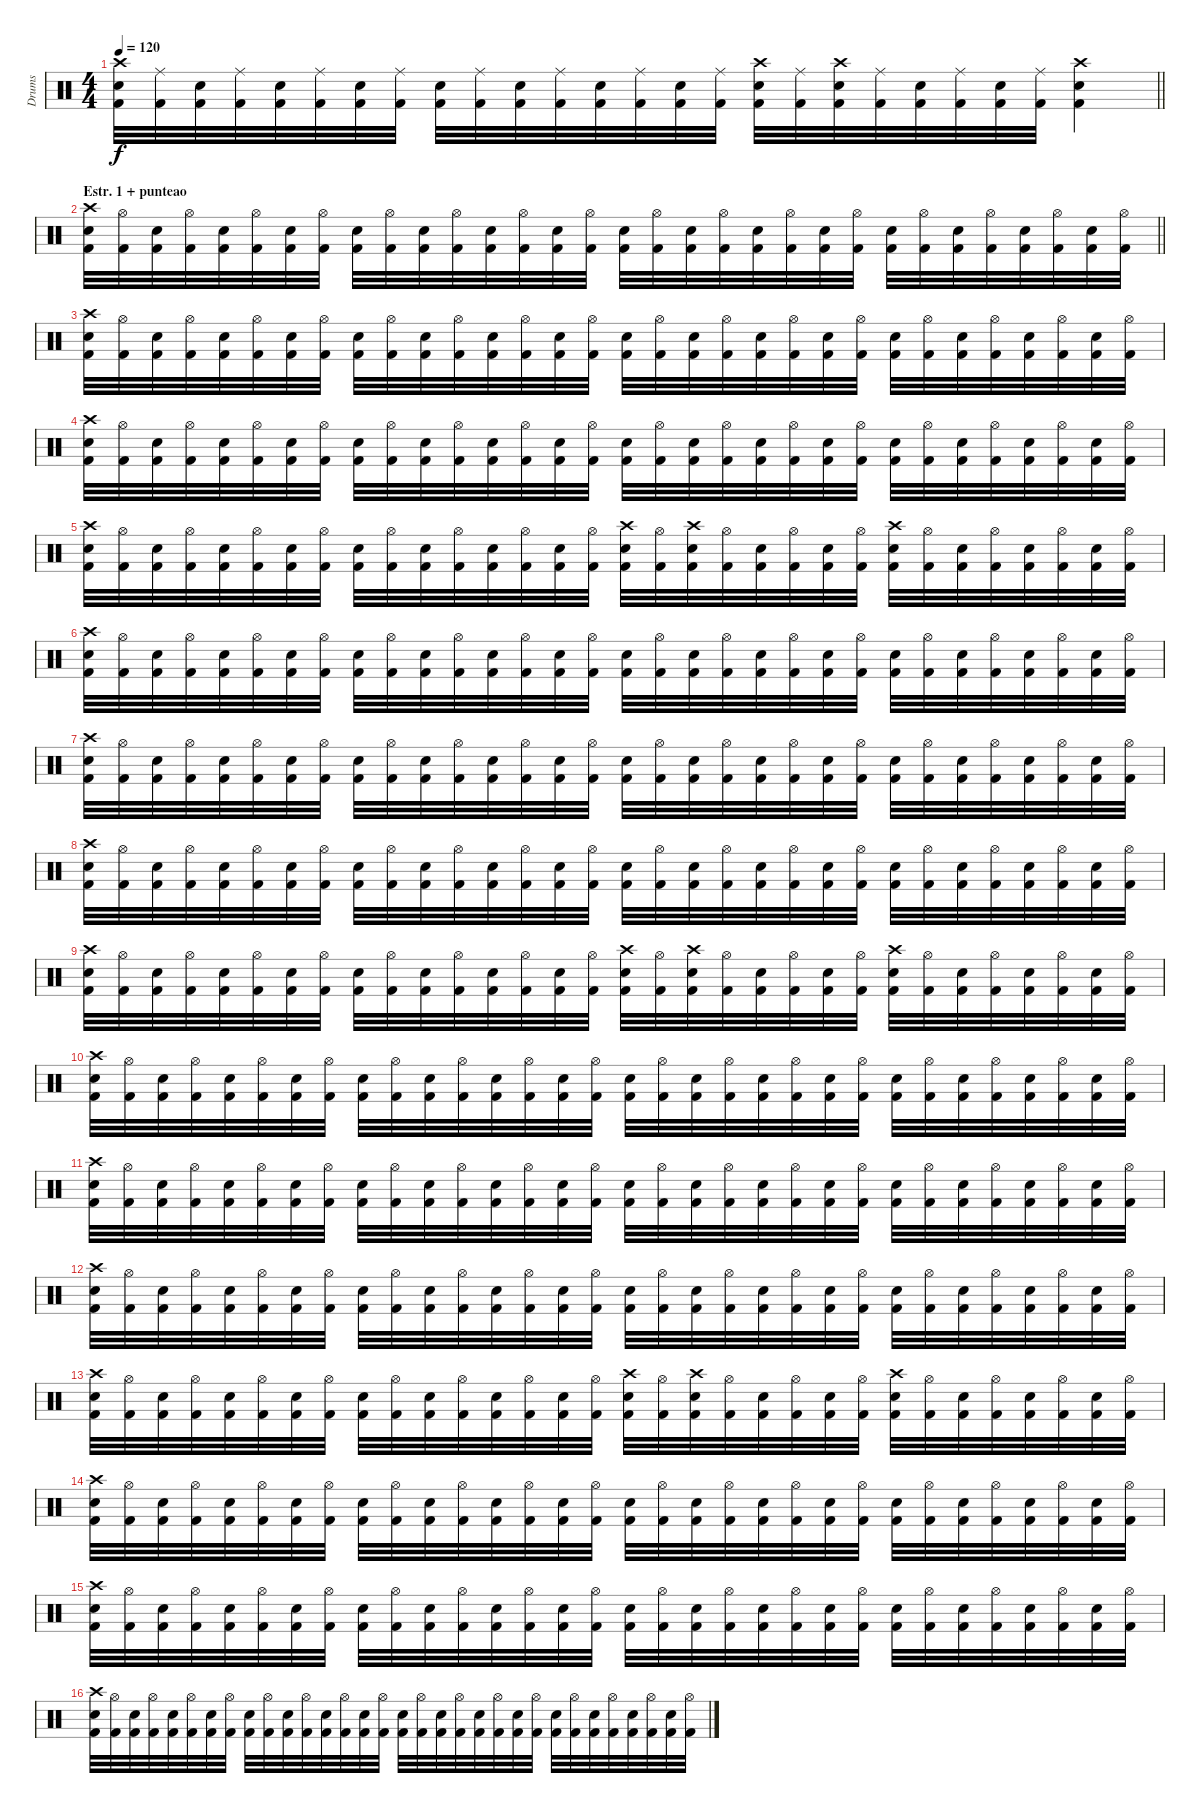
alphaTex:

\track ("Drums" "Drums") {instrument percussion}
\staff {score}
\articulation defaults
\ts (4 4)
\tempo 120
\clef neutral
\barLineRight lightlight
\ks c
("Kick (hit) 2" "Electric Snare (hit)" "Crash high (hit)").32{dy f} ("Kick (hit) 2" "Ride (middle)").32 ("Kick (hit) 2" "Electric Snare (hit)").32 ("Kick (hit) 2" "Ride (middle)").32 ("Kick (hit) 2" "Electric Snare (hit)").32 ("Kick (hit) 2" "Ride (middle)").32 ("Kick (hit) 2" "Electric Snare (hit)").32 ("Kick (hit) 2" "Ride (middle)").32 ("Kick (hit) 2" "Electric Snare (hit)").32 ("Kick (hit) 2" "Ride (middle)").32 ("Kick (hit) 2" "Electric Snare (hit)").32 ("Kick (hit) 2" "Ride (middle)").32 ("Kick (hit) 2" "Electric Snare (hit)").32 ("Kick (hit) 2" "Ride (middle)").32 ("Kick (hit) 2" "Electric Snare (hit)").32 ("Kick (hit) 2" "Ride (middle)").32 ("Kick (hit) 2" "Electric Snare (hit)" "Crash high (hit)").32 ("Kick (hit) 2" "Ride (middle)").32 ("Kick (hit) 2" "Electric Snare (hit)" "Crash high (hit)").32 ("Kick (hit) 2" "Ride (middle)").32 ("Kick (hit) 2" "Electric Snare (hit)").32 ("Kick (hit) 2" "Ride (middle)").32 ("Kick (hit) 2" "Electric Snare (hit)").32 ("Kick (hit) 2" "Ride (middle)").32 ("Kick (hit) 2" "Electric Snare (hit)" "Crash high (hit)").4 |
\section ("" "Estr. 1 + punteao")
\barLineRight lightlight
("Kick (hit) 2" "Electric Snare (hit)" "Crash high (hit)").32 ("Kick (hit) 2" "Hi-Hat (open)").32 ("Kick (hit) 2" "Electric Snare (hit)").32 ("Kick (hit) 2" "Hi-Hat (open)").32 ("Kick (hit) 2" "Electric Snare (hit)").32 ("Kick (hit) 2" "Hi-Hat (open)").32 ("Kick (hit) 2" "Electric Snare (hit)").32 ("Kick (hit) 2" "Hi-Hat (open)").32 ("Kick (hit) 2" "Electric Snare (hit)").32 ("Kick (hit) 2" "Hi-Hat (open)").32 ("Kick (hit) 2" "Electric Snare (hit)").32 ("Kick (hit) 2" "Hi-Hat (open)").32 ("Kick (hit) 2" "Electric Snare (hit)").32 ("Kick (hit) 2" "Hi-Hat (open)").32 ("Kick (hit) 2" "Electric Snare (hit)").32 ("Kick (hit) 2" "Hi-Hat (open)").32 ("Kick (hit) 2" "Electric Snare (hit)").32 ("Kick (hit) 2" "Hi-Hat (open)").32 ("Kick (hit) 2" "Electric Snare (hit)").32 ("Kick (hit) 2" "Hi-Hat (open)").32 ("Kick (hit) 2" "Electric Snare (hit)").32 ("Kick (hit) 2" "Hi-Hat (open)").32 ("Kick (hit) 2" "Electric Snare (hit)").32 ("Kick (hit) 2" "Hi-Hat (open)").32 ("Kick (hit) 2" "Electric Snare (hit)").32 ("Kick (hit) 2" "Hi-Hat (open)").32 ("Kick (hit) 2" "Electric Snare (hit)").32 ("Kick (hit) 2" "Hi-Hat (open)").32 ("Kick (hit) 2" "Electric Snare (hit)").32 ("Kick (hit) 2" "Hi-Hat (open)").32 ("Kick (hit) 2" "Electric Snare (hit)").32 ("Kick (hit) 2" "Hi-Hat (open)").32 |
("Kick (hit) 2" "Electric Snare (hit)" "Crash high (hit)").32 ("Kick (hit) 2" "Hi-Hat (open)").32 ("Kick (hit) 2" "Electric Snare (hit)").32 ("Kick (hit) 2" "Hi-Hat (open)").32 ("Kick (hit) 2" "Electric Snare (hit)").32 ("Kick (hit) 2" "Hi-Hat (open)").32 ("Kick (hit) 2" "Electric Snare (hit)").32 ("Kick (hit) 2" "Hi-Hat (open)").32 ("Kick (hit) 2" "Electric Snare (hit)").32 ("Kick (hit) 2" "Hi-Hat (open)").32 ("Kick (hit) 2" "Electric Snare (hit)").32 ("Kick (hit) 2" "Hi-Hat (open)").32 ("Kick (hit) 2" "Electric Snare (hit)").32 ("Kick (hit) 2" "Hi-Hat (open)").32 ("Kick (hit) 2" "Electric Snare (hit)").32 ("Kick (hit) 2" "Hi-Hat (open)").32 ("Kick (hit) 2" "Electric Snare (hit)").32 ("Kick (hit) 2" "Hi-Hat (open)").32 ("Kick (hit) 2" "Electric Snare (hit)").32 ("Kick (hit) 2" "Hi-Hat (open)").32 ("Kick (hit) 2" "Electric Snare (hit)").32 ("Kick (hit) 2" "Hi-Hat (open)").32 ("Kick (hit) 2" "Electric Snare (hit)").32 ("Kick (hit) 2" "Hi-Hat (open)").32 ("Kick (hit) 2" "Electric Snare (hit)").32 ("Kick (hit) 2" "Hi-Hat (open)").32 ("Kick (hit) 2" "Electric Snare (hit)").32 ("Kick (hit) 2" "Hi-Hat (open)").32 ("Kick (hit) 2" "Electric Snare (hit)").32 ("Kick (hit) 2" "Hi-Hat (open)").32 ("Kick (hit) 2" "Electric Snare (hit)").32 ("Kick (hit) 2" "Hi-Hat (open)").32 |
("Kick (hit) 2" "Electric Snare (hit)" "Crash high (hit)").32 ("Kick (hit) 2" "Hi-Hat (open)").32 ("Kick (hit) 2" "Electric Snare (hit)").32 ("Kick (hit) 2" "Hi-Hat (open)").32 ("Kick (hit) 2" "Electric Snare (hit)").32 ("Kick (hit) 2" "Hi-Hat (open)").32 ("Kick (hit) 2" "Electric Snare (hit)").32 ("Kick (hit) 2" "Hi-Hat (open)").32 ("Kick (hit) 2" "Electric Snare (hit)").32 ("Kick (hit) 2" "Hi-Hat (open)").32 ("Kick (hit) 2" "Electric Snare (hit)").32 ("Kick (hit) 2" "Hi-Hat (open)").32 ("Kick (hit) 2" "Electric Snare (hit)").32 ("Kick (hit) 2" "Hi-Hat (open)").32 ("Kick (hit) 2" "Electric Snare (hit)").32 ("Kick (hit) 2" "Hi-Hat (open)").32 ("Kick (hit) 2" "Electric Snare (hit)").32 ("Kick (hit) 2" "Hi-Hat (open)").32 ("Kick (hit) 2" "Electric Snare (hit)").32 ("Kick (hit) 2" "Hi-Hat (open)").32 ("Kick (hit) 2" "Electric Snare (hit)").32 ("Kick (hit) 2" "Hi-Hat (open)").32 ("Kick (hit) 2" "Electric Snare (hit)").32 ("Kick (hit) 2" "Hi-Hat (open)").32 ("Kick (hit) 2" "Electric Snare (hit)").32 ("Kick (hit) 2" "Hi-Hat (open)").32 ("Kick (hit) 2" "Electric Snare (hit)").32 ("Kick (hit) 2" "Hi-Hat (open)").32 ("Kick (hit) 2" "Electric Snare (hit)").32 ("Kick (hit) 2" "Hi-Hat (open)").32 ("Kick (hit) 2" "Electric Snare (hit)").32 ("Kick (hit) 2" "Hi-Hat (open)").32 |
("Kick (hit) 2" "Electric Snare (hit)" "Crash high (hit)").32 ("Kick (hit) 2" "Hi-Hat (open)").32 ("Kick (hit) 2" "Electric Snare (hit)").32 ("Kick (hit) 2" "Hi-Hat (open)").32 ("Kick (hit) 2" "Electric Snare (hit)").32 ("Kick (hit) 2" "Hi-Hat (open)").32 ("Kick (hit) 2" "Electric Snare (hit)").32 ("Kick (hit) 2" "Hi-Hat (open)").32 ("Kick (hit) 2" "Electric Snare (hit)").32 ("Kick (hit) 2" "Hi-Hat (open)").32 ("Kick (hit) 2" "Electric Snare (hit)").32 ("Kick (hit) 2" "Hi-Hat (open)").32 ("Kick (hit) 2" "Electric Snare (hit)").32 ("Kick (hit) 2" "Hi-Hat (open)").32 ("Kick (hit) 2" "Electric Snare (hit)").32 ("Kick (hit) 2" "Hi-Hat (open)").32 ("Kick (hit) 2" "Electric Snare (hit)" "Crash high (hit)").32 ("Kick (hit) 2" "Hi-Hat (open)").32 ("Kick (hit) 2" "Electric Snare (hit)" "Crash high (hit)").32 ("Kick (hit) 2" "Hi-Hat (open)").32 ("Kick (hit) 2" "Electric Snare (hit)").32 ("Kick (hit) 2" "Hi-Hat (open)").32 ("Kick (hit) 2" "Electric Snare (hit)").32 ("Kick (hit) 2" "Hi-Hat (open)").32 ("Kick (hit) 2" "Electric Snare (hit)" "Crash high (hit)").32 ("Kick (hit) 2" "Hi-Hat (open)").32 ("Kick (hit) 2" "Electric Snare (hit)").32 ("Kick (hit) 2" "Hi-Hat (open)").32 ("Kick (hit) 2" "Electric Snare (hit)").32 ("Kick (hit) 2" "Hi-Hat (open)").32 ("Kick (hit) 2" "Electric Snare (hit)").32 ("Kick (hit) 2" "Hi-Hat (open)").32 |
("Kick (hit) 2" "Electric Snare (hit)" "Crash high (hit)").32 ("Kick (hit) 2" "Hi-Hat (open)").32 ("Kick (hit) 2" "Electric Snare (hit)").32 ("Kick (hit) 2" "Hi-Hat (open)").32 ("Kick (hit) 2" "Electric Snare (hit)").32 ("Kick (hit) 2" "Hi-Hat (open)").32 ("Kick (hit) 2" "Electric Snare (hit)").32 ("Kick (hit) 2" "Hi-Hat (open)").32 ("Kick (hit) 2" "Electric Snare (hit)").32 ("Kick (hit) 2" "Hi-Hat (open)").32 ("Kick (hit) 2" "Electric Snare (hit)").32 ("Kick (hit) 2" "Hi-Hat (open)").32 ("Kick (hit) 2" "Electric Snare (hit)").32 ("Kick (hit) 2" "Hi-Hat (open)").32 ("Kick (hit) 2" "Electric Snare (hit)").32 ("Kick (hit) 2" "Hi-Hat (open)").32 ("Kick (hit) 2" "Electric Snare (hit)").32 ("Kick (hit) 2" "Hi-Hat (open)").32 ("Kick (hit) 2" "Electric Snare (hit)").32 ("Kick (hit) 2" "Hi-Hat (open)").32 ("Kick (hit) 2" "Electric Snare (hit)").32 ("Kick (hit) 2" "Hi-Hat (open)").32 ("Kick (hit) 2" "Electric Snare (hit)").32 ("Kick (hit) 2" "Hi-Hat (open)").32 ("Kick (hit) 2" "Electric Snare (hit)").32 ("Kick (hit) 2" "Hi-Hat (open)").32 ("Kick (hit) 2" "Electric Snare (hit)").32 ("Kick (hit) 2" "Hi-Hat (open)").32 ("Kick (hit) 2" "Electric Snare (hit)").32 ("Kick (hit) 2" "Hi-Hat (open)").32 ("Kick (hit) 2" "Electric Snare (hit)").32 ("Kick (hit) 2" "Hi-Hat (open)").32 |
("Kick (hit) 2" "Electric Snare (hit)" "Crash high (hit)").32 ("Kick (hit) 2" "Hi-Hat (open)").32 ("Kick (hit) 2" "Electric Snare (hit)").32 ("Kick (hit) 2" "Hi-Hat (open)").32 ("Kick (hit) 2" "Electric Snare (hit)").32 ("Kick (hit) 2" "Hi-Hat (open)").32 ("Kick (hit) 2" "Electric Snare (hit)").32 ("Kick (hit) 2" "Hi-Hat (open)").32 ("Kick (hit) 2" "Electric Snare (hit)").32 ("Kick (hit) 2" "Hi-Hat (open)").32 ("Kick (hit) 2" "Electric Snare (hit)").32 ("Kick (hit) 2" "Hi-Hat (open)").32 ("Kick (hit) 2" "Electric Snare (hit)").32 ("Kick (hit) 2" "Hi-Hat (open)").32 ("Kick (hit) 2" "Electric Snare (hit)").32 ("Kick (hit) 2" "Hi-Hat (open)").32 ("Kick (hit) 2" "Electric Snare (hit)").32 ("Kick (hit) 2" "Hi-Hat (open)").32 ("Kick (hit) 2" "Electric Snare (hit)").32 ("Kick (hit) 2" "Hi-Hat (open)").32 ("Kick (hit) 2" "Electric Snare (hit)").32 ("Kick (hit) 2" "Hi-Hat (open)").32 ("Kick (hit) 2" "Electric Snare (hit)").32 ("Kick (hit) 2" "Hi-Hat (open)").32 ("Kick (hit) 2" "Electric Snare (hit)").32 ("Kick (hit) 2" "Hi-Hat (open)").32 ("Kick (hit) 2" "Electric Snare (hit)").32 ("Kick (hit) 2" "Hi-Hat (open)").32 ("Kick (hit) 2" "Electric Snare (hit)").32 ("Kick (hit) 2" "Hi-Hat (open)").32 ("Kick (hit) 2" "Electric Snare (hit)").32 ("Kick (hit) 2" "Hi-Hat (open)").32 |
("Kick (hit) 2" "Electric Snare (hit)" "Crash high (hit)").32 ("Kick (hit) 2" "Hi-Hat (open)").32 ("Kick (hit) 2" "Electric Snare (hit)").32 ("Kick (hit) 2" "Hi-Hat (open)").32 ("Kick (hit) 2" "Electric Snare (hit)").32 ("Kick (hit) 2" "Hi-Hat (open)").32 ("Kick (hit) 2" "Electric Snare (hit)").32 ("Kick (hit) 2" "Hi-Hat (open)").32 ("Kick (hit) 2" "Electric Snare (hit)").32 ("Kick (hit) 2" "Hi-Hat (open)").32 ("Kick (hit) 2" "Electric Snare (hit)").32 ("Kick (hit) 2" "Hi-Hat (open)").32 ("Kick (hit) 2" "Electric Snare (hit)").32 ("Kick (hit) 2" "Hi-Hat (open)").32 ("Kick (hit) 2" "Electric Snare (hit)").32 ("Kick (hit) 2" "Hi-Hat (open)").32 ("Kick (hit) 2" "Electric Snare (hit)").32 ("Kick (hit) 2" "Hi-Hat (open)").32 ("Kick (hit) 2" "Electric Snare (hit)").32 ("Kick (hit) 2" "Hi-Hat (open)").32 ("Kick (hit) 2" "Electric Snare (hit)").32 ("Kick (hit) 2" "Hi-Hat (open)").32 ("Kick (hit) 2" "Electric Snare (hit)").32 ("Kick (hit) 2" "Hi-Hat (open)").32 ("Kick (hit) 2" "Electric Snare (hit)").32 ("Kick (hit) 2" "Hi-Hat (open)").32 ("Kick (hit) 2" "Electric Snare (hit)").32 ("Kick (hit) 2" "Hi-Hat (open)").32 ("Kick (hit) 2" "Electric Snare (hit)").32 ("Kick (hit) 2" "Hi-Hat (open)").32 ("Kick (hit) 2" "Electric Snare (hit)").32 ("Kick (hit) 2" "Hi-Hat (open)").32 |
("Kick (hit) 2" "Electric Snare (hit)" "Crash high (hit)").32 ("Kick (hit) 2" "Hi-Hat (open)").32 ("Kick (hit) 2" "Electric Snare (hit)").32 ("Kick (hit) 2" "Hi-Hat (open)").32 ("Kick (hit) 2" "Electric Snare (hit)").32 ("Kick (hit) 2" "Hi-Hat (open)").32 ("Kick (hit) 2" "Electric Snare (hit)").32 ("Kick (hit) 2" "Hi-Hat (open)").32 ("Kick (hit) 2" "Electric Snare (hit)").32 ("Kick (hit) 2" "Hi-Hat (open)").32 ("Kick (hit) 2" "Electric Snare (hit)").32 ("Kick (hit) 2" "Hi-Hat (open)").32 ("Kick (hit) 2" "Electric Snare (hit)").32 ("Kick (hit) 2" "Hi-Hat (open)").32 ("Kick (hit) 2" "Electric Snare (hit)").32 ("Kick (hit) 2" "Hi-Hat (open)").32 ("Kick (hit) 2" "Electric Snare (hit)" "Crash high (hit)").32 ("Kick (hit) 2" "Hi-Hat (open)").32 ("Kick (hit) 2" "Electric Snare (hit)" "Crash high (hit)").32 ("Kick (hit) 2" "Hi-Hat (open)").32 ("Kick (hit) 2" "Electric Snare (hit)").32 ("Kick (hit) 2" "Hi-Hat (open)").32 ("Kick (hit) 2" "Electric Snare (hit)").32 ("Kick (hit) 2" "Hi-Hat (open)").32 ("Kick (hit) 2" "Electric Snare (hit)" "Crash high (hit)").32 ("Kick (hit) 2" "Hi-Hat (open)").32 ("Kick (hit) 2" "Electric Snare (hit)").32 ("Kick (hit) 2" "Hi-Hat (open)").32 ("Kick (hit) 2" "Electric Snare (hit)").32 ("Kick (hit) 2" "Hi-Hat (open)").32 ("Kick (hit) 2" "Electric Snare (hit)").32 ("Kick (hit) 2" "Hi-Hat (open)").32 |
("Kick (hit) 2" "Electric Snare (hit)" "Crash high (hit)").32 ("Kick (hit) 2" "Hi-Hat (open)").32 ("Kick (hit) 2" "Electric Snare (hit)").32 ("Kick (hit) 2" "Hi-Hat (open)").32 ("Kick (hit) 2" "Electric Snare (hit)").32 ("Kick (hit) 2" "Hi-Hat (open)").32 ("Kick (hit) 2" "Electric Snare (hit)").32 ("Kick (hit) 2" "Hi-Hat (open)").32 ("Kick (hit) 2" "Electric Snare (hit)").32 ("Kick (hit) 2" "Hi-Hat (open)").32 ("Kick (hit) 2" "Electric Snare (hit)").32 ("Kick (hit) 2" "Hi-Hat (open)").32 ("Kick (hit) 2" "Electric Snare (hit)").32 ("Kick (hit) 2" "Hi-Hat (open)").32 ("Kick (hit) 2" "Electric Snare (hit)").32 ("Kick (hit) 2" "Hi-Hat (open)").32 ("Kick (hit) 2" "Electric Snare (hit)").32 ("Kick (hit) 2" "Hi-Hat (open)").32 ("Kick (hit) 2" "Electric Snare (hit)").32 ("Kick (hit) 2" "Hi-Hat (open)").32 ("Kick (hit) 2" "Electric Snare (hit)").32 ("Kick (hit) 2" "Hi-Hat (open)").32 ("Kick (hit) 2" "Electric Snare (hit)").32 ("Kick (hit) 2" "Hi-Hat (open)").32 ("Kick (hit) 2" "Electric Snare (hit)").32 ("Kick (hit) 2" "Hi-Hat (open)").32 ("Kick (hit) 2" "Electric Snare (hit)").32 ("Kick (hit) 2" "Hi-Hat (open)").32 ("Kick (hit) 2" "Electric Snare (hit)").32 ("Kick (hit) 2" "Hi-Hat (open)").32 ("Kick (hit) 2" "Electric Snare (hit)").32 ("Kick (hit) 2" "Hi-Hat (open)").32 |
("Kick (hit) 2" "Electric Snare (hit)" "Crash high (hit)").32 ("Kick (hit) 2" "Hi-Hat (open)").32 ("Kick (hit) 2" "Electric Snare (hit)").32 ("Kick (hit) 2" "Hi-Hat (open)").32 ("Kick (hit) 2" "Electric Snare (hit)").32 ("Kick (hit) 2" "Hi-Hat (open)").32 ("Kick (hit) 2" "Electric Snare (hit)").32 ("Kick (hit) 2" "Hi-Hat (open)").32 ("Kick (hit) 2" "Electric Snare (hit)").32 ("Kick (hit) 2" "Hi-Hat (open)").32 ("Kick (hit) 2" "Electric Snare (hit)").32 ("Kick (hit) 2" "Hi-Hat (open)").32 ("Kick (hit) 2" "Electric Snare (hit)").32 ("Kick (hit) 2" "Hi-Hat (open)").32 ("Kick (hit) 2" "Electric Snare (hit)").32 ("Kick (hit) 2" "Hi-Hat (open)").32 ("Kick (hit) 2" "Electric Snare (hit)").32 ("Kick (hit) 2" "Hi-Hat (open)").32 ("Kick (hit) 2" "Electric Snare (hit)").32 ("Kick (hit) 2" "Hi-Hat (open)").32 ("Kick (hit) 2" "Electric Snare (hit)").32 ("Kick (hit) 2" "Hi-Hat (open)").32 ("Kick (hit) 2" "Electric Snare (hit)").32 ("Kick (hit) 2" "Hi-Hat (open)").32 ("Kick (hit) 2" "Electric Snare (hit)").32 ("Kick (hit) 2" "Hi-Hat (open)").32 ("Kick (hit) 2" "Electric Snare (hit)").32 ("Kick (hit) 2" "Hi-Hat (open)").32 ("Kick (hit) 2" "Electric Snare (hit)").32 ("Kick (hit) 2" "Hi-Hat (open)").32 ("Kick (hit) 2" "Electric Snare (hit)").32 ("Kick (hit) 2" "Hi-Hat (open)").32 |
("Kick (hit) 2" "Electric Snare (hit)" "Crash high (hit)").32 ("Kick (hit) 2" "Hi-Hat (open)").32 ("Kick (hit) 2" "Electric Snare (hit)").32 ("Kick (hit) 2" "Hi-Hat (open)").32 ("Kick (hit) 2" "Electric Snare (hit)").32 ("Kick (hit) 2" "Hi-Hat (open)").32 ("Kick (hit) 2" "Electric Snare (hit)").32 ("Kick (hit) 2" "Hi-Hat (open)").32 ("Kick (hit) 2" "Electric Snare (hit)").32 ("Kick (hit) 2" "Hi-Hat (open)").32 ("Kick (hit) 2" "Electric Snare (hit)").32 ("Kick (hit) 2" "Hi-Hat (open)").32 ("Kick (hit) 2" "Electric Snare (hit)").32 ("Kick (hit) 2" "Hi-Hat (open)").32 ("Kick (hit) 2" "Electric Snare (hit)").32 ("Kick (hit) 2" "Hi-Hat (open)").32 ("Kick (hit) 2" "Electric Snare (hit)").32 ("Kick (hit) 2" "Hi-Hat (open)").32 ("Kick (hit) 2" "Electric Snare (hit)").32 ("Kick (hit) 2" "Hi-Hat (open)").32 ("Kick (hit) 2" "Electric Snare (hit)").32 ("Kick (hit) 2" "Hi-Hat (open)").32 ("Kick (hit) 2" "Electric Snare (hit)").32 ("Kick (hit) 2" "Hi-Hat (open)").32 ("Kick (hit) 2" "Electric Snare (hit)").32 ("Kick (hit) 2" "Hi-Hat (open)").32 ("Kick (hit) 2" "Electric Snare (hit)").32 ("Kick (hit) 2" "Hi-Hat (open)").32 ("Kick (hit) 2" "Electric Snare (hit)").32 ("Kick (hit) 2" "Hi-Hat (open)").32 ("Kick (hit) 2" "Electric Snare (hit)").32 ("Kick (hit) 2" "Hi-Hat (open)").32 |
("Kick (hit) 2" "Electric Snare (hit)" "Crash high (hit)").32 ("Kick (hit) 2" "Hi-Hat (open)").32 ("Kick (hit) 2" "Electric Snare (hit)").32 ("Kick (hit) 2" "Hi-Hat (open)").32 ("Kick (hit) 2" "Electric Snare (hit)").32 ("Kick (hit) 2" "Hi-Hat (open)").32 ("Kick (hit) 2" "Electric Snare (hit)").32 ("Kick (hit) 2" "Hi-Hat (open)").32 ("Kick (hit) 2" "Electric Snare (hit)").32 ("Kick (hit) 2" "Hi-Hat (open)").32 ("Kick (hit) 2" "Electric Snare (hit)").32 ("Kick (hit) 2" "Hi-Hat (open)").32 ("Kick (hit) 2" "Electric Snare (hit)").32 ("Kick (hit) 2" "Hi-Hat (open)").32 ("Kick (hit) 2" "Electric Snare (hit)").32 ("Kick (hit) 2" "Hi-Hat (open)").32 ("Kick (hit) 2" "Electric Snare (hit)" "Crash high (hit)").32 ("Kick (hit) 2" "Hi-Hat (open)").32 ("Kick (hit) 2" "Electric Snare (hit)" "Crash high (hit)").32 ("Kick (hit) 2" "Hi-Hat (open)").32 ("Kick (hit) 2" "Electric Snare (hit)").32 ("Kick (hit) 2" "Hi-Hat (open)").32 ("Kick (hit) 2" "Electric Snare (hit)").32 ("Kick (hit) 2" "Hi-Hat (open)").32 ("Kick (hit) 2" "Electric Snare (hit)" "Crash high (hit)").32 ("Kick (hit) 2" "Hi-Hat (open)").32 ("Kick (hit) 2" "Electric Snare (hit)").32 ("Kick (hit) 2" "Hi-Hat (open)").32 ("Kick (hit) 2" "Electric Snare (hit)").32 ("Kick (hit) 2" "Hi-Hat (open)").32 ("Kick (hit) 2" "Electric Snare (hit)").32 ("Kick (hit) 2" "Hi-Hat (open)").32 |
("Kick (hit) 2" "Electric Snare (hit)" "Crash high (hit)").32 ("Kick (hit) 2" "Hi-Hat (open)").32 ("Kick (hit) 2" "Electric Snare (hit)").32 ("Kick (hit) 2" "Hi-Hat (open)").32 ("Kick (hit) 2" "Electric Snare (hit)").32 ("Kick (hit) 2" "Hi-Hat (open)").32 ("Kick (hit) 2" "Electric Snare (hit)").32 ("Kick (hit) 2" "Hi-Hat (open)").32 ("Kick (hit) 2" "Electric Snare (hit)").32 ("Kick (hit) 2" "Hi-Hat (open)").32 ("Kick (hit) 2" "Electric Snare (hit)").32 ("Kick (hit) 2" "Hi-Hat (open)").32 ("Kick (hit) 2" "Electric Snare (hit)").32 ("Kick (hit) 2" "Hi-Hat (open)").32 ("Kick (hit) 2" "Electric Snare (hit)").32 ("Kick (hit) 2" "Hi-Hat (open)").32 ("Kick (hit) 2" "Electric Snare (hit)").32 ("Kick (hit) 2" "Hi-Hat (open)").32 ("Kick (hit) 2" "Electric Snare (hit)").32 ("Kick (hit) 2" "Hi-Hat (open)").32 ("Kick (hit) 2" "Electric Snare (hit)").32 ("Kick (hit) 2" "Hi-Hat (open)").32 ("Kick (hit) 2" "Electric Snare (hit)").32 ("Kick (hit) 2" "Hi-Hat (open)").32 ("Kick (hit) 2" "Electric Snare (hit)").32 ("Kick (hit) 2" "Hi-Hat (open)").32 ("Kick (hit) 2" "Electric Snare (hit)").32 ("Kick (hit) 2" "Hi-Hat (open)").32 ("Kick (hit) 2" "Electric Snare (hit)").32 ("Kick (hit) 2" "Hi-Hat (open)").32 ("Kick (hit) 2" "Electric Snare (hit)").32 ("Kick (hit) 2" "Hi-Hat (open)").32 |
("Kick (hit) 2" "Electric Snare (hit)" "Crash high (hit)").32 ("Kick (hit) 2" "Hi-Hat (open)").32 ("Kick (hit) 2" "Electric Snare (hit)").32 ("Kick (hit) 2" "Hi-Hat (open)").32 ("Kick (hit) 2" "Electric Snare (hit)").32 ("Kick (hit) 2" "Hi-Hat (open)").32 ("Kick (hit) 2" "Electric Snare (hit)").32 ("Kick (hit) 2" "Hi-Hat (open)").32 ("Kick (hit) 2" "Electric Snare (hit)").32 ("Kick (hit) 2" "Hi-Hat (open)").32 ("Kick (hit) 2" "Electric Snare (hit)").32 ("Kick (hit) 2" "Hi-Hat (open)").32 ("Kick (hit) 2" "Electric Snare (hit)").32 ("Kick (hit) 2" "Hi-Hat (open)").32 ("Kick (hit) 2" "Electric Snare (hit)").32 ("Kick (hit) 2" "Hi-Hat (open)").32 ("Kick (hit) 2" "Electric Snare (hit)").32 ("Kick (hit) 2" "Hi-Hat (open)").32 ("Kick (hit) 2" "Electric Snare (hit)").32 ("Kick (hit) 2" "Hi-Hat (open)").32 ("Kick (hit) 2" "Electric Snare (hit)").32 ("Kick (hit) 2" "Hi-Hat (open)").32 ("Kick (hit) 2" "Electric Snare (hit)").32 ("Kick (hit) 2" "Hi-Hat (open)").32 ("Kick (hit) 2" "Electric Snare (hit)").32 ("Kick (hit) 2" "Hi-Hat (open)").32 ("Kick (hit) 2" "Electric Snare (hit)").32 ("Kick (hit) 2" "Hi-Hat (open)").32 ("Kick (hit) 2" "Electric Snare (hit)").32 ("Kick (hit) 2" "Hi-Hat (open)").32 ("Kick (hit) 2" "Electric Snare (hit)").32 ("Kick (hit) 2" "Hi-Hat (open)").32 |
("Kick (hit) 2" "Electric Snare (hit)" "Crash high (hit)").32 ("Kick (hit) 2" "Hi-Hat (open)").32 ("Kick (hit) 2" "Electric Snare (hit)").32 ("Kick (hit) 2" "Hi-Hat (open)").32 ("Kick (hit) 2" "Electric Snare (hit)").32 ("Kick (hit) 2" "Hi-Hat (open)").32 ("Kick (hit) 2" "Electric Snare (hit)").32 ("Kick (hit) 2" "Hi-Hat (open)").32 ("Kick (hit) 2" "Electric Snare (hit)").32 ("Kick (hit) 2" "Hi-Hat (open)").32 ("Kick (hit) 2" "Electric Snare (hit)").32 ("Kick (hit) 2" "Hi-Hat (open)").32 ("Kick (hit) 2" "Electric Snare (hit)").32 ("Kick (hit) 2" "Hi-Hat (open)").32 ("Kick (hit) 2" "Electric Snare (hit)").32 ("Kick (hit) 2" "Hi-Hat (open)").32 ("Kick (hit) 2" "Electric Snare (hit)").32 ("Kick (hit) 2" "Hi-Hat (open)").32 ("Kick (hit) 2" "Electric Snare (hit)").32 ("Kick (hit) 2" "Hi-Hat (open)").32 ("Kick (hit) 2" "Electric Snare (hit)").32 ("Kick (hit) 2" "Hi-Hat (open)").32 ("Kick (hit) 2" "Electric Snare (hit)").32 ("Kick (hit) 2" "Hi-Hat (open)").32 ("Kick (hit) 2" "Electric Snare (hit)").32 ("Kick (hit) 2" "Hi-Hat (open)").32 ("Kick (hit) 2" "Electric Snare (hit)").32 ("Kick (hit) 2" "Hi-Hat (open)").32 ("Kick (hit) 2" "Electric Snare (hit)").32 ("Kick (hit) 2" "Hi-Hat (open)").32 ("Kick (hit) 2" "Electric Snare (hit)").32 ("Kick (hit) 2" "Hi-Hat (open)").32
